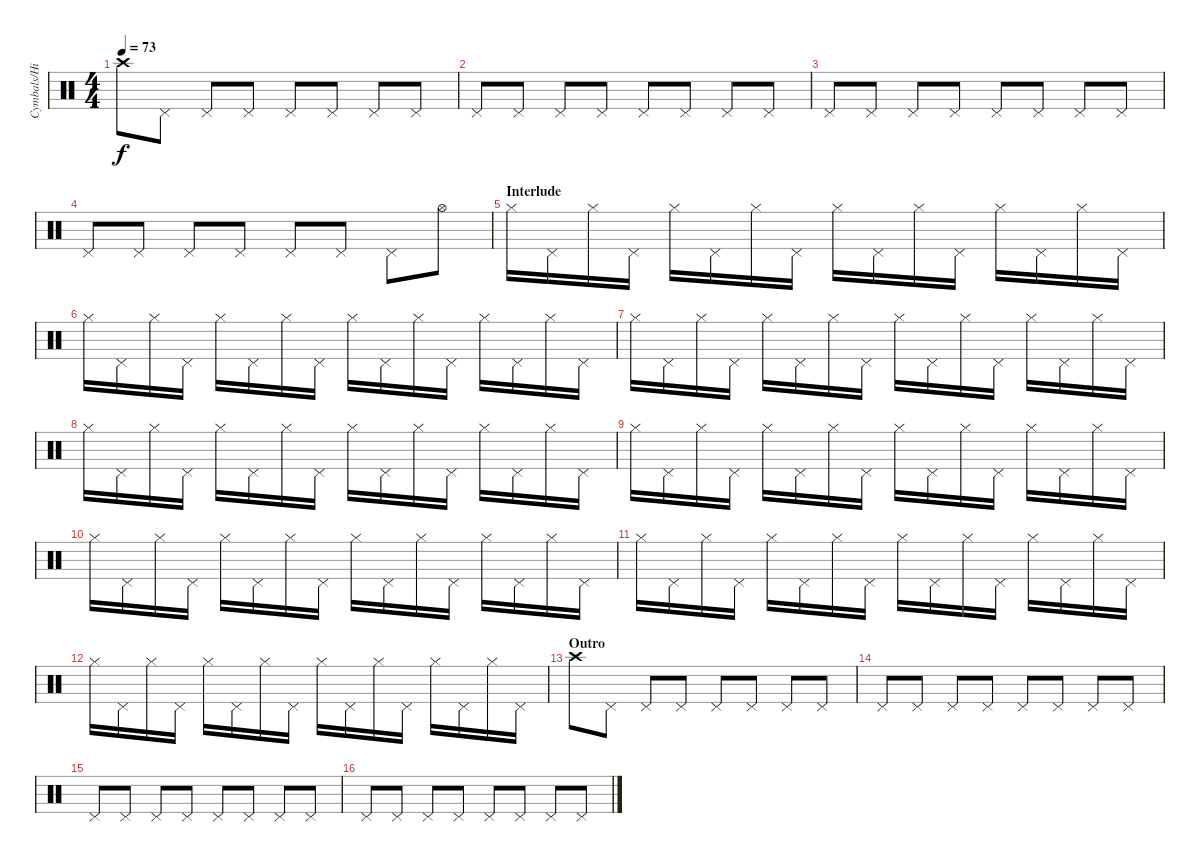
\track ("Cymbals/Hi-hat" "Cymbals/Hi") {instrument percussion}
\staff {score}
\articulation defaults
\ts (4 4)
\tempo 73
\clef neutral
\ks c "Crash high (hit)".8{dy f} "Pedal Hi-Hat (hit)".8 "Pedal Hi-Hat (hit)".8 "Pedal Hi-Hat (hit)".8 "Pedal Hi-Hat (hit)".8 "Pedal Hi-Hat (hit)".8 "Pedal Hi-Hat (hit)".8 "Pedal Hi-Hat (hit)".8
|
"Pedal Hi-Hat (hit)".8 "Pedal Hi-Hat (hit)".8 "Pedal Hi-Hat (hit)".8 "Pedal Hi-Hat (hit)".8 "Pedal Hi-Hat (hit)".8 "Pedal Hi-Hat (hit)".8 "Pedal Hi-Hat (hit)".8 "Pedal Hi-Hat (hit)".8 |
"Pedal Hi-Hat (hit)".8 "Pedal Hi-Hat (hit)".8 "Pedal Hi-Hat (hit)".8 "Pedal Hi-Hat (hit)".8 "Pedal Hi-Hat (hit)".8 "Pedal Hi-Hat (hit)".8 "Pedal Hi-Hat (hit)".8 "Pedal Hi-Hat (hit)".8 |
"Pedal Hi-Hat (hit)".8 "Pedal Hi-Hat (hit)".8 "Pedal Hi-Hat (hit)".8 "Pedal Hi-Hat (hit)".8 "Pedal Hi-Hat (hit)".8 "Pedal Hi-Hat (hit)".8 "Pedal Hi-Hat (hit)".8 "Hi-Hat (open)".8 |
\section ("" "Interlude")
"Hi-Hat (closed)".16 "Pedal Hi-Hat (hit)".16 "Hi-Hat (closed)".16 "Pedal Hi-Hat (hit)".16 "Hi-Hat (closed)".16 "Pedal Hi-Hat (hit)".16 "Hi-Hat (closed)".16 "Pedal Hi-Hat (hit)".16 "Hi-Hat (closed)".16 "Pedal Hi-Hat (hit)".16 "Hi-Hat (closed)".16 "Pedal Hi-Hat (hit)".16 "Hi-Hat (closed)".16 "Pedal Hi-Hat (hit)".16 "Hi-Hat (closed)".16 "Pedal Hi-Hat (hit)".16 |
"Hi-Hat (closed)".16 "Pedal Hi-Hat (hit)".16 "Hi-Hat (closed)".16 "Pedal Hi-Hat (hit)".16 "Hi-Hat (closed)".16 "Pedal Hi-Hat (hit)".16 "Hi-Hat (closed)".16 "Pedal Hi-Hat (hit)".16 "Hi-Hat (closed)".16 "Pedal Hi-Hat (hit)".16 "Hi-Hat (closed)".16 "Pedal Hi-Hat (hit)".16 "Hi-Hat (closed)".16 "Pedal Hi-Hat (hit)".16 "Hi-Hat (closed)".16 "Pedal Hi-Hat (hit)".16 |
"Hi-Hat (closed)".16 "Pedal Hi-Hat (hit)".16 "Hi-Hat (closed)".16 "Pedal Hi-Hat (hit)".16 "Hi-Hat (closed)".16 "Pedal Hi-Hat (hit)".16 "Hi-Hat (closed)".16 "Pedal Hi-Hat (hit)".16 "Hi-Hat (closed)".16 "Pedal Hi-Hat (hit)".16 "Hi-Hat (closed)".16 "Pedal Hi-Hat (hit)".16 "Hi-Hat (closed)".16 "Pedal Hi-Hat (hit)".16 "Hi-Hat (closed)".16 "Pedal Hi-Hat (hit)".16 |
"Hi-Hat (closed)".16 "Pedal Hi-Hat (hit)".16 "Hi-Hat (closed)".16 "Pedal Hi-Hat (hit)".16 "Hi-Hat (closed)".16 "Pedal Hi-Hat (hit)".16 "Hi-Hat (closed)".16 "Pedal Hi-Hat (hit)".16 "Hi-Hat (closed)".16 "Pedal Hi-Hat (hit)".16 "Hi-Hat (closed)".16 "Pedal Hi-Hat (hit)".16 "Hi-Hat (closed)".16 "Pedal Hi-Hat (hit)".16 "Hi-Hat (closed)".16 "Pedal Hi-Hat (hit)".16 |
"Hi-Hat (closed)".16 "Pedal Hi-Hat (hit)".16 "Hi-Hat (closed)".16 "Pedal Hi-Hat (hit)".16 "Hi-Hat (closed)".16 "Pedal Hi-Hat (hit)".16 "Hi-Hat (closed)".16 "Pedal Hi-Hat (hit)".16 "Hi-Hat (closed)".16 "Pedal Hi-Hat (hit)".16 "Hi-Hat (closed)".16 "Pedal Hi-Hat (hit)".16 "Hi-Hat (closed)".16 "Pedal Hi-Hat (hit)".16 "Hi-Hat (closed)".16 "Pedal Hi-Hat (hit)".16 |
"Hi-Hat (closed)".16 "Pedal Hi-Hat (hit)".16 "Hi-Hat (closed)".16 "Pedal Hi-Hat (hit)".16 "Hi-Hat (closed)".16 "Pedal Hi-Hat (hit)".16 "Hi-Hat (closed)".16 "Pedal Hi-Hat (hit)".16 "Hi-Hat (closed)".16 "Pedal Hi-Hat (hit)".16 "Hi-Hat (closed)".16 "Pedal Hi-Hat (hit)".16 "Hi-Hat (closed)".16 "Pedal Hi-Hat (hit)".16 "Hi-Hat (closed)".16 "Pedal Hi-Hat (hit)".16 |
"Hi-Hat (closed)".16 "Pedal Hi-Hat (hit)".16 "Hi-Hat (closed)".16 "Pedal Hi-Hat (hit)".16 "Hi-Hat (closed)".16 "Pedal Hi-Hat (hit)".16 "Hi-Hat (closed)".16 "Pedal Hi-Hat (hit)".16 "Hi-Hat (closed)".16 "Pedal Hi-Hat (hit)".16 "Hi-Hat (closed)".16 "Pedal Hi-Hat (hit)".16 "Hi-Hat (closed)".16 "Pedal Hi-Hat (hit)".16 "Hi-Hat (closed)".16 "Pedal Hi-Hat (hit)".16 |
"Hi-Hat (closed)".16 "Pedal Hi-Hat (hit)".16 "Hi-Hat (closed)".16 "Pedal Hi-Hat (hit)".16 "Hi-Hat (closed)".16 "Pedal Hi-Hat (hit)".16 "Hi-Hat (closed)".16 "Pedal Hi-Hat (hit)".16 "Hi-Hat (closed)".16 "Pedal Hi-Hat (hit)".16 "Hi-Hat (closed)".16 "Pedal Hi-Hat (hit)".16 "Hi-Hat (closed)".16 "Pedal Hi-Hat (hit)".16 "Hi-Hat (closed)".16 "Pedal Hi-Hat (hit)".16 |
\section ("" "Outro")
"Crash high (hit)".8 "Pedal Hi-Hat (hit)".8 "Pedal Hi-Hat (hit)".8 "Pedal Hi-Hat (hit)".8 "Pedal Hi-Hat (hit)".8 "Pedal Hi-Hat (hit)".8 "Pedal Hi-Hat (hit)".8 "Pedal Hi-Hat (hit)".8 |
"Pedal Hi-Hat (hit)".8 "Pedal Hi-Hat (hit)".8 "Pedal Hi-Hat (hit)".8 "Pedal Hi-Hat (hit)".8 "Pedal Hi-Hat (hit)".8 "Pedal Hi-Hat (hit)".8 "Pedal Hi-Hat (hit)".8 "Pedal Hi-Hat (hit)".8 |
"Pedal Hi-Hat (hit)".8 "Pedal Hi-Hat (hit)".8 "Pedal Hi-Hat (hit)".8 "Pedal Hi-Hat (hit)".8 "Pedal Hi-Hat (hit)".8 "Pedal Hi-Hat (hit)".8 "Pedal Hi-Hat (hit)".8 "Pedal Hi-Hat (hit)".8 |
"Pedal Hi-Hat (hit)".8 "Pedal Hi-Hat (hit)".8 "Pedal Hi-Hat (hit)".8 "Pedal Hi-Hat (hit)".8 "Pedal Hi-Hat (hit)".8 "Pedal Hi-Hat (hit)".8 "Pedal Hi-Hat (hit)".8 "Pedal Hi-Hat (hit)".8
